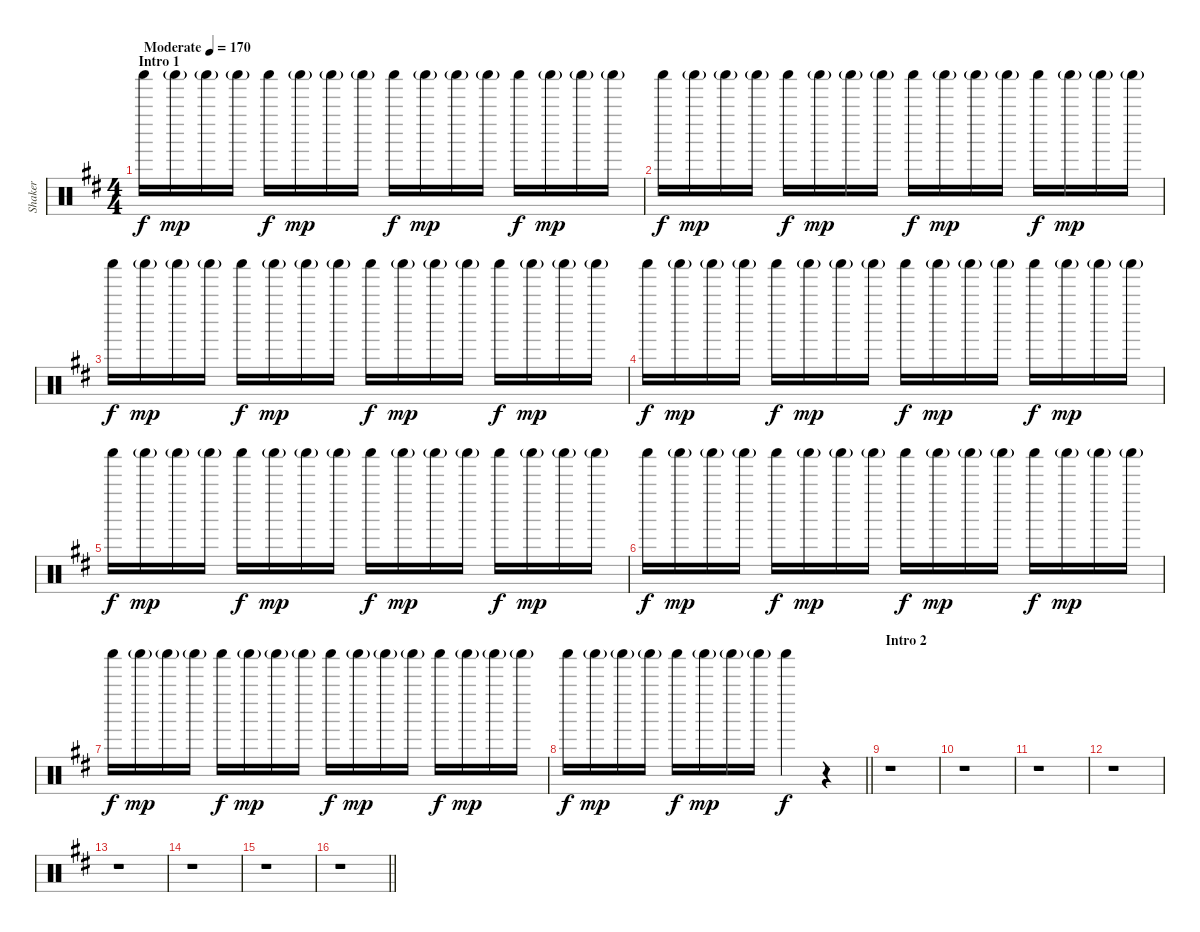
\track ("Shaker" "Shaker") {instrument percussion}
\staff {score}
\articulation defaults
\ts (4 4)
\section ("" "Intro 1")
\tempo (170 "Moderate")
\clef neutral
\ks d "Shaker (hit)".16{dy f} "Shaker (hit)"{g}.16{dy mp} "Shaker (hit)"{g}.16 "Shaker (hit)"{g}.16 "Shaker (hit)".16{dy f} "Shaker (hit)"{g}.16{dy mp} "Shaker (hit)"{g}.16 "Shaker (hit)"{g}.16 "Shaker (hit)".16{dy f} "Shaker (hit)"{g}.16{dy mp} "Shaker (hit)"{g}.16 "Shaker (hit)"{g}.16 "Shaker (hit)".16{dy f} "Shaker (hit)"{g}.16{dy mp} "Shaker (hit)"{g}.16 "Shaker (hit)"{g}.16
|
"Shaker (hit)".16{dy f} "Shaker (hit)"{g}.16{dy mp} "Shaker (hit)"{g}.16 "Shaker (hit)"{g}.16 "Shaker (hit)".16{dy f} "Shaker (hit)"{g}.16{dy mp} "Shaker (hit)"{g}.16 "Shaker (hit)"{g}.16 "Shaker (hit)".16{dy f} "Shaker (hit)"{g}.16{dy mp} "Shaker (hit)"{g}.16 "Shaker (hit)"{g}.16 "Shaker (hit)".16{dy f} "Shaker (hit)"{g}.16{dy mp} "Shaker (hit)"{g}.16 "Shaker (hit)"{g}.16 |
"Shaker (hit)".16{dy f} "Shaker (hit)"{g}.16{dy mp} "Shaker (hit)"{g}.16 "Shaker (hit)"{g}.16 "Shaker (hit)".16{dy f} "Shaker (hit)"{g}.16{dy mp} "Shaker (hit)"{g}.16 "Shaker (hit)"{g}.16 "Shaker (hit)".16{dy f} "Shaker (hit)"{g}.16{dy mp} "Shaker (hit)"{g}.16 "Shaker (hit)"{g}.16 "Shaker (hit)".16{dy f} "Shaker (hit)"{g}.16{dy mp} "Shaker (hit)"{g}.16 "Shaker (hit)"{g}.16 |
"Shaker (hit)".16{dy f} "Shaker (hit)"{g}.16{dy mp} "Shaker (hit)"{g}.16 "Shaker (hit)"{g}.16 "Shaker (hit)".16{dy f} "Shaker (hit)"{g}.16{dy mp} "Shaker (hit)"{g}.16 "Shaker (hit)"{g}.16 "Shaker (hit)".16{dy f} "Shaker (hit)"{g}.16{dy mp} "Shaker (hit)"{g}.16 "Shaker (hit)"{g}.16 "Shaker (hit)".16{dy f} "Shaker (hit)"{g}.16{dy mp} "Shaker (hit)"{g}.16 "Shaker (hit)"{g}.16 |
"Shaker (hit)".16{dy f} "Shaker (hit)"{g}.16{dy mp} "Shaker (hit)"{g}.16 "Shaker (hit)"{g}.16 "Shaker (hit)".16{dy f} "Shaker (hit)"{g}.16{dy mp} "Shaker (hit)"{g}.16 "Shaker (hit)"{g}.16 "Shaker (hit)".16{dy f} "Shaker (hit)"{g}.16{dy mp} "Shaker (hit)"{g}.16 "Shaker (hit)"{g}.16 "Shaker (hit)".16{dy f} "Shaker (hit)"{g}.16{dy mp} "Shaker (hit)"{g}.16 "Shaker (hit)"{g}.16 |
"Shaker (hit)".16{dy f} "Shaker (hit)"{g}.16{dy mp} "Shaker (hit)"{g}.16 "Shaker (hit)"{g}.16 "Shaker (hit)".16{dy f} "Shaker (hit)"{g}.16{dy mp} "Shaker (hit)"{g}.16 "Shaker (hit)"{g}.16 "Shaker (hit)".16{dy f} "Shaker (hit)"{g}.16{dy mp} "Shaker (hit)"{g}.16 "Shaker (hit)"{g}.16 "Shaker (hit)".16{dy f} "Shaker (hit)"{g}.16{dy mp} "Shaker (hit)"{g}.16 "Shaker (hit)"{g}.16 |
"Shaker (hit)".16{dy f} "Shaker (hit)"{g}.16{dy mp} "Shaker (hit)"{g}.16 "Shaker (hit)"{g}.16 "Shaker (hit)".16{dy f} "Shaker (hit)"{g}.16{dy mp} "Shaker (hit)"{g}.16 "Shaker (hit)"{g}.16 "Shaker (hit)".16{dy f} "Shaker (hit)"{g}.16{dy mp} "Shaker (hit)"{g}.16 "Shaker (hit)"{g}.16 "Shaker (hit)".16{dy f} "Shaker (hit)"{g}.16{dy mp} "Shaker (hit)"{g}.16 "Shaker (hit)"{g}.16 |
\barLineRight lightlight "Shaker (hit)".16{dy f} "Shaker (hit)"{g}.16{dy mp} "Shaker (hit)"{g}.16 "Shaker (hit)"{g}.16 "Shaker (hit)".16{dy f} "Shaker (hit)"{g}.16{dy mp} "Shaker (hit)"{g}.16 "Shaker (hit)"{g}.16 "Shaker (hit)".4{dy f}
r.4 |
\section ("" "Intro 2")
r.1 |
r.1 |
r.1 |
r.1 |
r.1 |
r.1 |
r.1 |
\barLineRight lightlight
r.1
